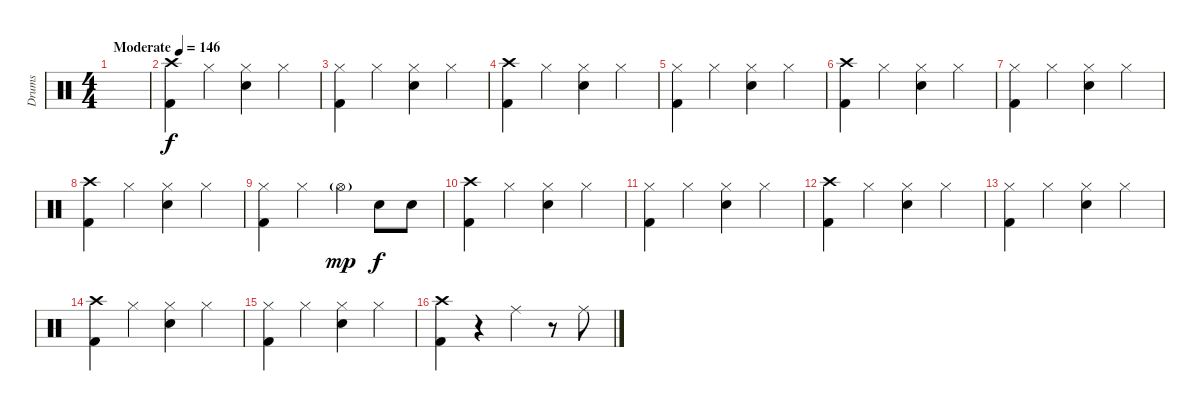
\track ("Drums" "Drums") {instrument percussion}
\staff {score}
\articulation defaults
\ts (4 4)
\tempo (146 "Moderate")
\clef neutral
\ks c
|
("Kick (hit) 2" "Crash high (hit)").4 "Hi-Hat (closed)".4 ("Electric Snare (hit)" "Hi-Hat (closed)").4 "Hi-Hat (closed)".4 |
("Kick (hit) 2" "Hi-Hat (closed)").4 "Hi-Hat (closed)".4 ("Electric Snare (hit)" "Hi-Hat (closed)").4 "Hi-Hat (closed)".4 |
("Kick (hit) 2" "Crash high (hit)").4 "Hi-Hat (closed)".4 ("Electric Snare (hit)" "Hi-Hat (closed)").4 "Hi-Hat (closed)".4 |
("Kick (hit) 2" "Hi-Hat (closed)").4 "Hi-Hat (closed)".4 ("Electric Snare (hit)" "Hi-Hat (closed)").4 "Hi-Hat (closed)".4 |
("Kick (hit) 2" "Crash high (hit)").4 "Hi-Hat (closed)".4 ("Electric Snare (hit)" "Hi-Hat (closed)").4 "Hi-Hat (closed)".4 |
("Kick (hit) 2" "Hi-Hat (closed)").4 "Hi-Hat (closed)".4 ("Electric Snare (hit)" "Hi-Hat (closed)").4 "Hi-Hat (closed)".4 |
("Kick (hit) 2" "Crash high (hit)").4 "Hi-Hat (closed)".4 ("Electric Snare (hit)" "Hi-Hat (closed)").4 "Hi-Hat (closed)".4 |
("Kick (hit) 2" "Hi-Hat (closed)").4 "Hi-Hat (closed)".4 "Hi-Hat (open)"{g}.4{dy mp} "Electric Snare (hit)".8{dy f} "Electric Snare (hit)".8 |
("Kick (hit) 2" "Crash high (hit)").4 "Hi-Hat (closed)".4 ("Electric Snare (hit)" "Hi-Hat (closed)").4 "Hi-Hat (closed)".4 |
("Kick (hit) 2" "Hi-Hat (closed)").4 "Hi-Hat (closed)".4 ("Electric Snare (hit)" "Hi-Hat (closed)").4 "Hi-Hat (closed)".4 |
("Kick (hit) 2" "Crash high (hit)").4 "Hi-Hat (closed)".4 ("Electric Snare (hit)" "Hi-Hat (closed)").4 "Hi-Hat (closed)".4 |
("Kick (hit) 2" "Hi-Hat (closed)").4 "Hi-Hat (closed)".4 ("Electric Snare (hit)" "Hi-Hat (closed)").4 "Hi-Hat (closed)".4 |
("Kick (hit) 2" "Crash high (hit)").4 "Hi-Hat (closed)".4 ("Electric Snare (hit)" "Hi-Hat (closed)").4 "Hi-Hat (closed)".4 |
("Kick (hit) 2" "Hi-Hat (closed)").4 "Hi-Hat (closed)".4 ("Electric Snare (hit)" "Hi-Hat (closed)").4 "Hi-Hat (closed)".4 |
("Kick (hit) 2" "Crash high (hit)").4 r.4 "Ride (middle)".4 r.8 "Ride (middle)".8
